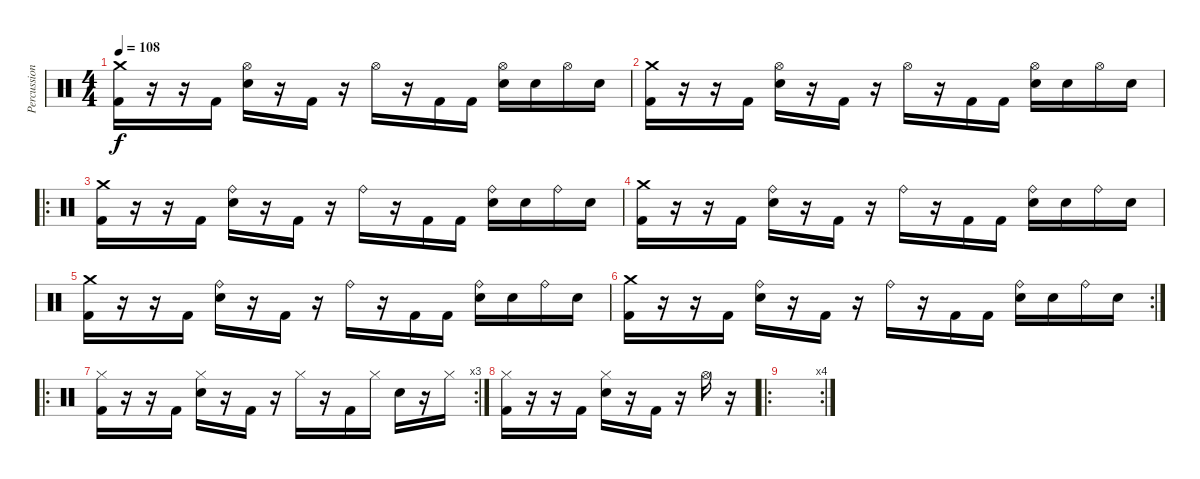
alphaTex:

\track ("Percussions" "Percussion") {instrument percussion}
\staff {score}
\articulation defaults
\ts (4 4)
\tempo 108
\clef neutral
\ks c
("Kick (hit) 2" "Crash medium (hit)").16{dy f} r.16 r.16 "Kick (hit) 2".16 ("Electric Snare (hit)" "Hi-Hat (open)").16 r.16 "Kick (hit) 2".16 r.16 "Hi-Hat (open)".16 r.16 "Kick (hit) 2".16 "Kick (hit) 2".16 ("Electric Snare (hit)" "Hi-Hat (open)").16 "Electric Snare (hit)".16 "Hi-Hat (open)".16 "Electric Snare (hit)".16 |
("Kick (hit) 2" "Crash medium (hit)").16 r.16 r.16 "Kick (hit) 2".16 ("Electric Snare (hit)" "Hi-Hat (open)").16 r.16 "Kick (hit) 2".16 r.16 "Hi-Hat (open)".16 r.16 "Kick (hit) 2".16 "Kick (hit) 2".16 ("Electric Snare (hit)" "Hi-Hat (open)").16 "Electric Snare (hit)".16 "Hi-Hat (open)".16 "Electric Snare (hit)".16 |
\ro
("Kick (hit) 2" "Crash medium (hit)").16 r.16 r.16 "Kick (hit) 2".16 ("Electric Snare (hit)" "Ride (bell)").16 r.16 "Kick (hit) 2".16 r.16 "Ride (bell)".16 r.16 "Kick (hit) 2".16 "Kick (hit) 2".16 ("Electric Snare (hit)" "Ride (bell)").16 "Electric Snare (hit)".16 "Ride (bell)".16 "Electric Snare (hit)".16 |
("Kick (hit) 2" "Crash medium (hit)").16 r.16 r.16 "Kick (hit) 2".16 ("Electric Snare (hit)" "Ride (bell)").16 r.16 "Kick (hit) 2".16 r.16 "Ride (bell)".16 r.16 "Kick (hit) 2".16 "Kick (hit) 2".16 ("Electric Snare (hit)" "Ride (bell)").16 "Electric Snare (hit)".16 "Ride (bell)".16 "Electric Snare (hit)".16 |
("Kick (hit) 2" "Crash medium (hit)").16 r.16 r.16 "Kick (hit) 2".16 ("Electric Snare (hit)" "Ride (bell)").16 r.16 "Kick (hit) 2".16 r.16 "Ride (bell)".16 r.16 "Kick (hit) 2".16 "Kick (hit) 2".16 ("Electric Snare (hit)" "Ride (bell)").16 "Electric Snare (hit)".16 "Ride (bell)".16 "Electric Snare (hit)".16 |
\rc 2
("Kick (hit) 2" "Crash medium (hit)").16 r.16 r.16 "Kick (hit) 2".16 ("Electric Snare (hit)" "Ride (bell)").16 r.16 "Kick (hit) 2".16 r.16 "Ride (bell)".16 r.16 "Kick (hit) 2".16 "Kick (hit) 2".16 ("Electric Snare (hit)" "Ride (bell)").16 "Electric Snare (hit)".16 "Ride (bell)".16 "Electric Snare (hit)".16 |
\ro
\rc 3
("Kick (hit) 2" "Hi-Hat (closed)").16 r.16 r.16 "Kick (hit) 2".16 ("Electric Snare (hit)" "Hi-Hat (closed)").16 r.16 "Kick (hit) 2".16 r.16 "Hi-Hat (closed)".16 r.16 "Kick (hit) 2".16 "Hi-Hat (closed)".16 "Electric Snare (hit)".16 r.16 "Hi-Hat (closed)".16 |
("Kick (hit) 2" "Hi-Hat (closed)").16 r.16 r.16 "Kick (hit) 2".16 ("Electric Snare (hit)" "Hi-Hat (closed)").16 r.16 "Kick (hit) 2".16 r.16 "Hi-Hat (open)".16 r.16 |
\ro
\rc 4
